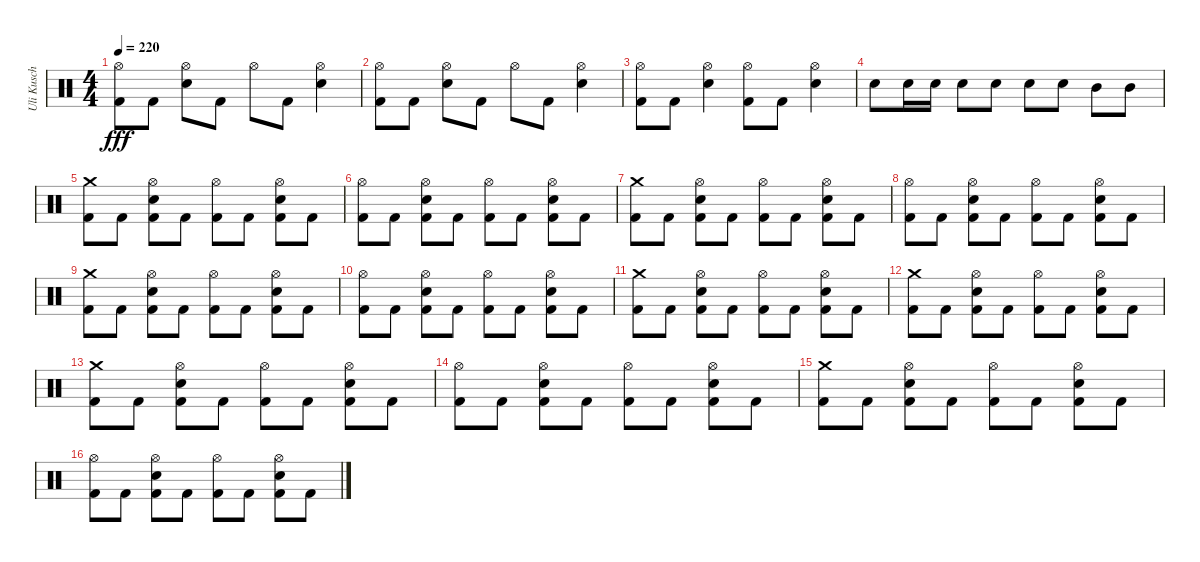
\track ("Uli Kusch" "Uli Kusch") {instrument percussion}
\staff {score}
\articulation defaults
\ts (4 4)
\tempo 220
\clef neutral
\ks c
("Hi-Hat (open)" "Kick (hit) 2").8{dy fff} "Kick (hit) 2".8 ("Hi-Hat (open)" "Snare (hit) 2").8 "Kick (hit) 2".8 "Hi-Hat (open)".8 "Kick (hit) 2".8 ("Hi-Hat (open)" "Snare (hit) 2").4 |
("Hi-Hat (open)" "Kick (hit) 2").8 "Kick (hit) 2".8 ("Hi-Hat (open)" "Snare (hit) 2").8 "Kick (hit) 2".8 "Hi-Hat (open)".8 "Kick (hit) 2".8 ("Hi-Hat (open)" "Snare (hit) 2").4 |
("Hi-Hat (open)" "Kick (hit) 2").8 "Kick (hit) 2".8 ("Hi-Hat (open)" "Snare (hit) 2").4 ("Hi-Hat (open)" "Kick (hit) 2").8 "Kick (hit) 2".8 ("Hi-Hat (open)" "Snare (hit) 2").4 |
"Snare (hit) 2".8 "Snare (hit) 2".16 "Snare (hit) 2".16 "Snare (hit) 2".8 "Snare (hit) 2".8 "Snare (hit) 2".8 "Snare (hit) 2".8 "Mid Tom (hit)".8 "Mid Tom (hit)".8 |
("Crash medium (hit)" "Kick (hit) 2").8 "Kick (hit) 2".8 ("Hi-Hat (open)" "Snare (hit) 2" "Kick (hit) 2").8 "Kick (hit) 2".8 ("Hi-Hat (open)" "Kick (hit) 2").8 "Kick (hit) 2".8 ("Hi-Hat (open)" "Snare (hit) 2" "Kick (hit) 2").8 "Kick (hit) 2".8 |
("Hi-Hat (open)" "Kick (hit) 2").8 "Kick (hit) 2".8 ("Hi-Hat (open)" "Snare (hit) 2" "Kick (hit) 2").8 "Kick (hit) 2".8 ("Hi-Hat (open)" "Kick (hit) 2").8 "Kick (hit) 2".8 ("Hi-Hat (open)" "Snare (hit) 2" "Kick (hit) 2").8 "Kick (hit) 2".8 |
("Crash medium (hit)" "Kick (hit) 2").8 "Kick (hit) 2".8 ("Hi-Hat (open)" "Snare (hit) 2" "Kick (hit) 2").8 "Kick (hit) 2".8 ("Hi-Hat (open)" "Kick (hit) 2").8 "Kick (hit) 2".8 ("Hi-Hat (open)" "Snare (hit) 2" "Kick (hit) 2").8 "Kick (hit) 2".8 |
("Hi-Hat (open)" "Kick (hit) 2").8 "Kick (hit) 2".8 ("Hi-Hat (open)" "Snare (hit) 2" "Kick (hit) 2").8 "Kick (hit) 2".8 ("Hi-Hat (open)" "Kick (hit) 2").8 "Kick (hit) 2".8 ("Hi-Hat (open)" "Snare (hit) 2" "Kick (hit) 2").8 "Kick (hit) 2".8 |
("Crash medium (hit)" "Kick (hit) 2").8 "Kick (hit) 2".8 ("Hi-Hat (open)" "Snare (hit) 2" "Kick (hit) 2").8 "Kick (hit) 2".8 ("Hi-Hat (open)" "Kick (hit) 2").8 "Kick (hit) 2".8 ("Hi-Hat (open)" "Snare (hit) 2" "Kick (hit) 2").8 "Kick (hit) 2".8 |
("Hi-Hat (open)" "Kick (hit) 2").8 "Kick (hit) 2".8 ("Hi-Hat (open)" "Snare (hit) 2" "Kick (hit) 2").8 "Kick (hit) 2".8 ("Hi-Hat (open)" "Kick (hit) 2").8 "Kick (hit) 2".8 ("Hi-Hat (open)" "Snare (hit) 2" "Kick (hit) 2").8 "Kick (hit) 2".8 |
("Crash medium (hit)" "Kick (hit) 2").8 "Kick (hit) 2".8 ("Hi-Hat (open)" "Snare (hit) 2" "Kick (hit) 2").8 "Kick (hit) 2".8 ("Hi-Hat (open)" "Kick (hit) 2").8 "Kick (hit) 2".8 ("Hi-Hat (open)" "Snare (hit) 2" "Kick (hit) 2").8 "Kick (hit) 2".8 |
("Crash medium (hit)" "Kick (hit) 2").8 "Kick (hit) 2".8 ("Hi-Hat (open)" "Snare (hit) 2" "Kick (hit) 2").8 "Kick (hit) 2".8 ("Hi-Hat (open)" "Kick (hit) 2").8 "Kick (hit) 2".8 ("Hi-Hat (open)" "Snare (hit) 2" "Kick (hit) 2").8 "Kick (hit) 2".8 |
("Crash medium (hit)" "Kick (hit) 2").8 "Kick (hit) 2".8 ("Hi-Hat (open)" "Snare (hit) 2" "Kick (hit) 2").8 "Kick (hit) 2".8 ("Hi-Hat (open)" "Kick (hit) 2").8 "Kick (hit) 2".8 ("Hi-Hat (open)" "Snare (hit) 2" "Kick (hit) 2").8 "Kick (hit) 2".8 |
("Hi-Hat (open)" "Kick (hit) 2").8 "Kick (hit) 2".8 ("Hi-Hat (open)" "Snare (hit) 2" "Kick (hit) 2").8 "Kick (hit) 2".8 ("Hi-Hat (open)" "Kick (hit) 2").8 "Kick (hit) 2".8 ("Hi-Hat (open)" "Snare (hit) 2" "Kick (hit) 2").8 "Kick (hit) 2".8 |
("Crash medium (hit)" "Kick (hit) 2").8 "Kick (hit) 2".8 ("Hi-Hat (open)" "Snare (hit) 2" "Kick (hit) 2").8 "Kick (hit) 2".8 ("Hi-Hat (open)" "Kick (hit) 2").8 "Kick (hit) 2".8 ("Hi-Hat (open)" "Snare (hit) 2" "Kick (hit) 2").8 "Kick (hit) 2".8 |
("Hi-Hat (open)" "Kick (hit) 2").8 "Kick (hit) 2".8 ("Hi-Hat (open)" "Snare (hit) 2" "Kick (hit) 2").8 "Kick (hit) 2".8 ("Hi-Hat (open)" "Kick (hit) 2").8 "Kick (hit) 2".8 ("Hi-Hat (open)" "Snare (hit) 2" "Kick (hit) 2").8 "Kick (hit) 2".8
